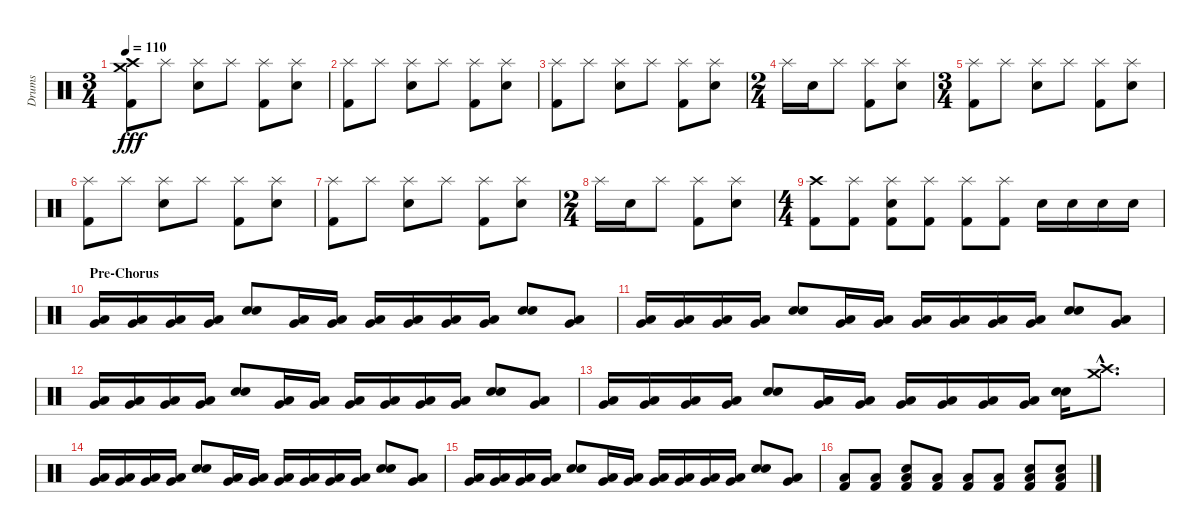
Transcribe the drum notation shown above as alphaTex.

\track ("Drums" "Drums") {instrument percussion}
\staff {score}
\articulation defaults
\ts (3 4)
\tempo 110
\clef neutral
\ks c
("Crash high (hit)" "Crash medium (hit)" "Kick (hit) 2").8{dy fff} "Splash (hit)".8 ("Splash (hit)" "Electric Snare (hit)").8 "Splash (hit)".8 ("Splash (hit)" "Kick (hit) 2").8 ("Splash (hit)" "Electric Snare (hit)").8 |
("Splash (hit)" "Kick (hit) 2").8 "Splash (hit)".8 ("Splash (hit)" "Electric Snare (hit)").8 "Splash (hit)".8 ("Splash (hit)" "Kick (hit) 2").8 ("Splash (hit)" "Electric Snare (hit)").8 |
("Splash (hit)" "Kick (hit) 2").8 "Splash (hit)".8 ("Splash (hit)" "Electric Snare (hit)").8 "Splash (hit)".8 ("Splash (hit)" "Kick (hit) 2").8 ("Splash (hit)" "Electric Snare (hit)").8 |
\ts (2 4)
"Splash (hit)".16 "Electric Snare (hit)".16 "Splash (hit)".8 ("Splash (hit)" "Kick (hit) 2").8 ("Splash (hit)" "Electric Snare (hit)").8 |
\ts (3 4)
("Splash (hit)" "Kick (hit) 2").8 "Splash (hit)".8 ("Splash (hit)" "Electric Snare (hit)").8 "Splash (hit)".8 ("Splash (hit)" "Kick (hit) 2").8 ("Splash (hit)" "Electric Snare (hit)").8 |
("Splash (hit)" "Kick (hit) 2").8 "Splash (hit)".8 ("Splash (hit)" "Electric Snare (hit)").8 "Splash (hit)".8 ("Splash (hit)" "Kick (hit) 2").8 ("Splash (hit)" "Electric Snare (hit)").8 |
("Splash (hit)" "Kick (hit) 2").8 "Splash (hit)".8 ("Splash (hit)" "Electric Snare (hit)").8 "Splash (hit)".8 ("Splash (hit)" "Kick (hit) 2").8 ("Splash (hit)" "Electric Snare (hit)").8 |
\ts (2 4)
"Splash (hit)".16 "Electric Snare (hit)".16 "Splash (hit)".8 ("Splash (hit)" "Kick (hit) 2").8 ("Splash (hit)" "Electric Snare (hit)").8 |
\ts (4 4)
("Crash high (hit)" "Kick (hit) 2").8 ("Splash (hit)" "Kick (hit) 2").8 ("Splash (hit)" "Electric Snare (hit)" "Kick (hit) 2").8 ("Splash (hit)" "Kick (hit) 2").8 ("Splash (hit)" "Kick (hit) 2").8 ("Splash (hit)" "Kick (hit) 2").8 "Electric Snare (hit)".16 "Electric Snare (hit)".16 "Electric Snare (hit)".16 "Electric Snare (hit)".16 |
\section ("" "Pre-Chorus")
("Low Tom (hit)" "Very Low Tom (hit)").16 ("Low Tom (hit)" "Very Low Tom (hit)").16 ("Low Tom (hit)" "Very Low Tom (hit)").16 ("Very Low Tom (hit)" "Low Floor Tom (hit)").16 ("Electric Snare (hit)" "Electric Snare (hit)").8 ("Low Tom (hit)" "Very Low Tom (hit)").16 ("Very Low Tom (hit)" "Low Floor Tom (hit)").16 ("Very Low Tom (hit)" "Low Floor Tom (hit)").16 ("Low Tom (hit)" "Very Low Tom (hit)").16 ("Low Tom (hit)" "Very Low Tom (hit)").16 ("Very Low Tom (hit)" "Low Floor Tom (hit)").16 ("Electric Snare (hit)" "Electric Snare (hit)").8 ("Very Low Tom (hit)" "Low Floor Tom (hit)").8 |
("Low Tom (hit)" "Very Low Tom (hit)").16 ("Low Tom (hit)" "Very Low Tom (hit)").16 ("Low Tom (hit)" "Very Low Tom (hit)").16 ("Very Low Tom (hit)" "Low Floor Tom (hit)").16 ("Electric Snare (hit)" "Electric Snare (hit)").8 ("Low Tom (hit)" "Very Low Tom (hit)").16 ("Very Low Tom (hit)" "Low Floor Tom (hit)").16 ("Very Low Tom (hit)" "Low Floor Tom (hit)").16 ("Low Tom (hit)" "Very Low Tom (hit)").16 ("Low Tom (hit)" "Very Low Tom (hit)").16 ("Very Low Tom (hit)" "Low Floor Tom (hit)").16 ("Electric Snare (hit)" "Electric Snare (hit)").8 ("Very Low Tom (hit)" "Low Floor Tom (hit)").8 |
("Low Tom (hit)" "Very Low Tom (hit)").16 ("Low Tom (hit)" "Very Low Tom (hit)").16 ("Low Tom (hit)" "Very Low Tom (hit)").16 ("Very Low Tom (hit)" "Low Floor Tom (hit)").16 ("Electric Snare (hit)" "Electric Snare (hit)").8 ("Low Tom (hit)" "Very Low Tom (hit)").16 ("Very Low Tom (hit)" "Low Floor Tom (hit)").16 ("Very Low Tom (hit)" "Low Floor Tom (hit)").16 ("Low Tom (hit)" "Very Low Tom (hit)").16 ("Low Tom (hit)" "Very Low Tom (hit)").16 ("Very Low Tom (hit)" "Low Floor Tom (hit)").16 ("Electric Snare (hit)" "Electric Snare (hit)").8 ("Very Low Tom (hit)" "Low Floor Tom (hit)").8 |
("Low Tom (hit)" "Very Low Tom (hit)").16 ("Low Tom (hit)" "Very Low Tom (hit)").16 ("Low Tom (hit)" "Very Low Tom (hit)").16 ("Very Low Tom (hit)" "Low Floor Tom (hit)").16 ("Electric Snare (hit)" "Electric Snare (hit)").8 ("Low Tom (hit)" "Very Low Tom (hit)").16 ("Very Low Tom (hit)" "Low Floor Tom (hit)").16 ("Very Low Tom (hit)" "Low Floor Tom (hit)").16 ("Low Tom (hit)" "Very Low Tom (hit)").16 ("Low Tom (hit)" "Very Low Tom (hit)").16 ("Very Low Tom (hit)" "Low Floor Tom (hit)").16 ("Electric Snare (hit)" "Electric Snare (hit)").16 ("Crash high (hit)"{hac} "Crash medium (hit)"{hac}).8{d} |
("Low Tom (hit)" "Very Low Tom (hit)").16 ("Low Tom (hit)" "Very Low Tom (hit)").16 ("Low Tom (hit)" "Very Low Tom (hit)").16 ("Very Low Tom (hit)" "Low Floor Tom (hit)").16 ("Electric Snare (hit)" "Electric Snare (hit)").8 ("Low Tom (hit)" "Very Low Tom (hit)").16 ("Very Low Tom (hit)" "Low Floor Tom (hit)").16 ("Very Low Tom (hit)" "Low Floor Tom (hit)").16 ("Low Tom (hit)" "Very Low Tom (hit)").16 ("Low Tom (hit)" "Very Low Tom (hit)").16 ("Very Low Tom (hit)" "Low Floor Tom (hit)").16 ("Electric Snare (hit)" "Electric Snare (hit)").8 ("Very Low Tom (hit)" "Low Floor Tom (hit)").8 |
("Low Tom (hit)" "Very Low Tom (hit)").16 ("Low Tom (hit)" "Very Low Tom (hit)").16 ("Low Tom (hit)" "Very Low Tom (hit)").16 ("Very Low Tom (hit)" "Low Floor Tom (hit)").16 ("Electric Snare (hit)" "Electric Snare (hit)").8 ("Low Tom (hit)" "Very Low Tom (hit)").16 ("Very Low Tom (hit)" "Low Floor Tom (hit)").16 ("Very Low Tom (hit)" "Low Floor Tom (hit)").16 ("Low Tom (hit)" "Very Low Tom (hit)").16 ("Low Tom (hit)" "Very Low Tom (hit)").16 ("Very Low Tom (hit)" "Low Floor Tom (hit)").16 ("Electric Snare (hit)" "Electric Snare (hit)").8 ("Very Low Tom (hit)" "Low Floor Tom (hit)").8 |
("Low Tom (hit)" "Kick (hit) 2").8 ("Low Tom (hit)" "Kick (hit) 2").8 ("Low Tom (hit)" "Electric Snare (hit)" "Kick (hit) 2").8 ("Low Tom (hit)" "Kick (hit) 2").8 ("Low Tom (hit)" "Kick (hit) 2").8 ("Low Tom (hit)" "Kick (hit) 2").8 ("Low Tom (hit)" "Electric Snare (hit)" "Kick (hit) 2").8 ("Low Tom (hit)" "Electric Snare (hit)" "Kick (hit) 2").8
